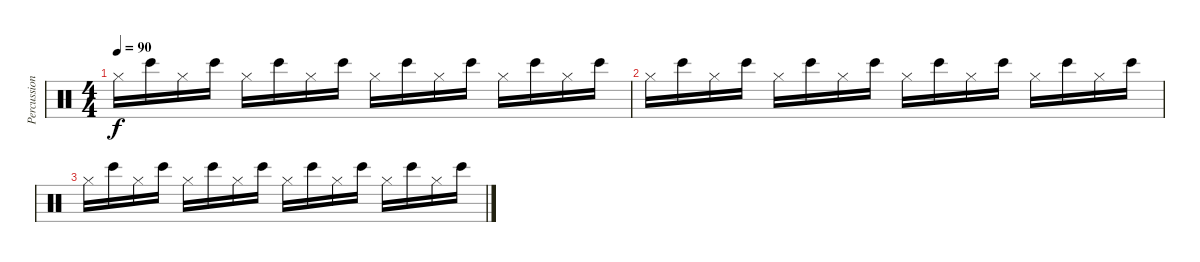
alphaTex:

\track ("Percussion" "Percussion") {instrument percussion}
\staff {score}
\articulation defaults
\ts (4 4)
\tempo 90
\clef neutral
\ks c "Hi-Hat (closed)".16{dy f} "Bongo High (hit)".16 "Hi-Hat (closed)".16 "Bongo High (hit)".16 "Hi-Hat (closed)".16 "Bongo High (hit)".16 "Hi-Hat (closed)".16 "Bongo High (hit)".16 "Hi-Hat (closed)".16 "Bongo High (hit)".16 "Hi-Hat (closed)".16 "Bongo High (hit)".16 "Hi-Hat (closed)".16 "Bongo High (hit)".16 "Hi-Hat (closed)".16 "Bongo High (hit)".16
|
"Hi-Hat (closed)".16 "Bongo High (hit)".16 "Hi-Hat (closed)".16 "Bongo High (hit)".16 "Hi-Hat (closed)".16 "Bongo High (hit)".16 "Hi-Hat (closed)".16 "Bongo High (hit)".16 "Hi-Hat (closed)".16 "Bongo High (hit)".16 "Hi-Hat (closed)".16 "Bongo High (hit)".16 "Hi-Hat (closed)".16 "Bongo High (hit)".16 "Hi-Hat (closed)".16 "Bongo High (hit)".16 |
"Hi-Hat (closed)".16 "Bongo High (hit)".16 "Hi-Hat (closed)".16 "Bongo High (hit)".16 "Hi-Hat (closed)".16 "Bongo High (hit)".16 "Hi-Hat (closed)".16 "Bongo High (hit)".16 "Hi-Hat (closed)".16 "Bongo High (hit)".16 "Hi-Hat (closed)".16 "Bongo High (hit)".16 "Hi-Hat (closed)".16 "Bongo High (hit)".16 "Hi-Hat (closed)".16 "Bongo High (hit)".16
